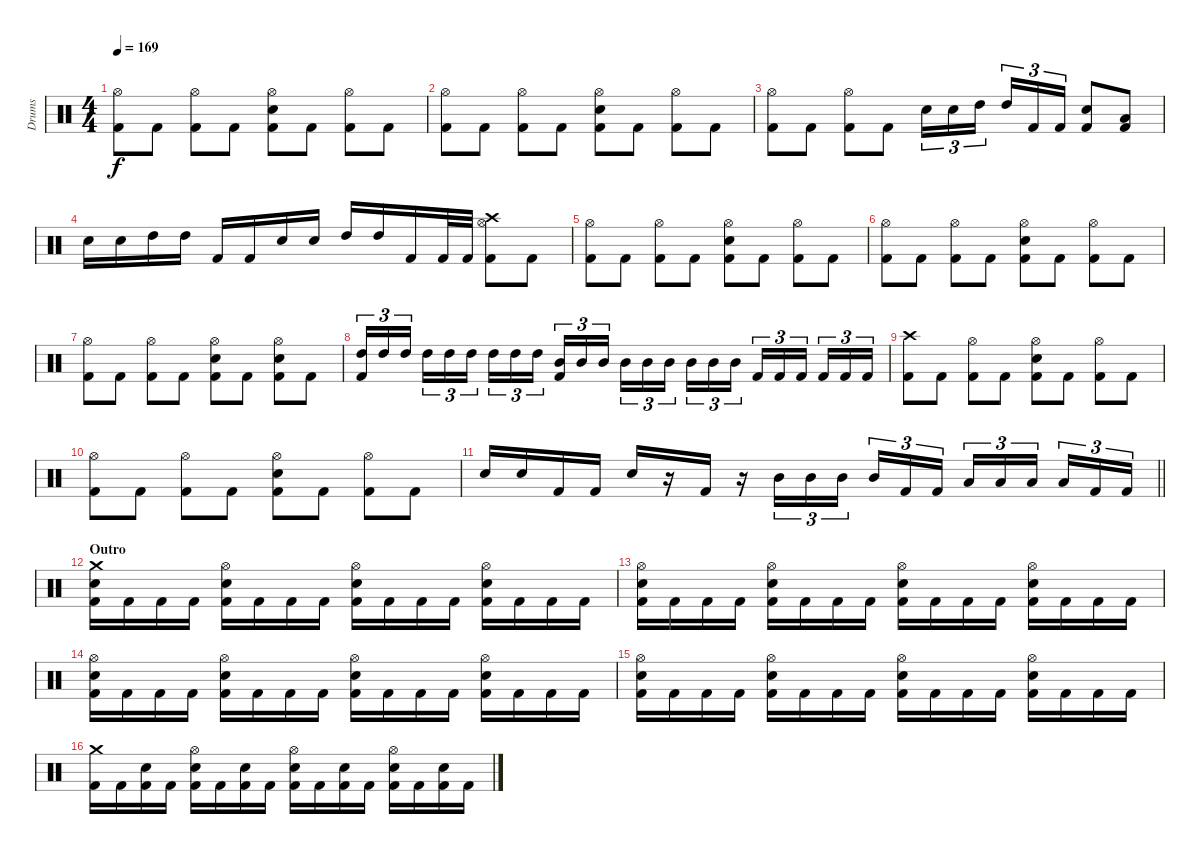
\track ("Drums" "Drums") {instrument percussion}
\staff {score}
\articulation defaults
\ts (4 4)
\tempo 169
\clef neutral
\ks c
("Hi-Hat (open)" "Kick (hit) 2").8{dy f} "Kick (hit) 2".8 ("Hi-Hat (open)" "Kick (hit) 2").8 "Kick (hit) 2".8 ("Hi-Hat (open)" "Snare (hit) 2" "Kick (hit) 2").8 "Kick (hit) 2".8 ("Hi-Hat (open)" "Kick (hit) 2").8 "Kick (hit) 2".8 |
("Hi-Hat (open)" "Kick (hit) 2").8 "Kick (hit) 2".8 ("Hi-Hat (open)" "Kick (hit) 2").8 "Kick (hit) 2".8 ("Hi-Hat (open)" "Snare (hit) 2" "Kick (hit) 2").8 "Kick (hit) 2".8 ("Hi-Hat (open)" "Kick (hit) 2").8 "Kick (hit) 2".8 |
("Hi-Hat (open)" "Kick (hit) 2").8 "Kick (hit) 2".8 ("Hi-Hat (open)" "Kick (hit) 2").8 "Kick (hit) 2".8 "Snare (hit) 2".16{tu (3 2)} "Snare (hit) 2".16{tu (3 2)} "High Tom (hit)".16{tu (3 2) beam splitsecondary} "High Tom (hit)".16{tu (3 2)} "Kick (hit) 2".16{tu (3 2)} "Kick (hit) 2".16{tu (3 2)} ("Snare (hit) 2" "Kick (hit) 2").8 ("Low Tom (hit)" "Kick (hit) 2").8 |
"Snare (hit) 2".16 "Snare (hit) 2".16 "High Tom (hit)".16 "High Tom (hit)".16 "Kick (hit) 2".16 "Kick (hit) 2".16 "Snare (hit) 2".16 "Snare (hit) 2".16 "High Tom (hit)".16 "High Tom (hit)".16 "Kick (hit) 2".16 "Kick (hit) 2".32 "Kick (hit) 2".32 ("Crash high (hit)" "Hi-Hat (open)" "Kick (hit) 2").8 "Kick (hit) 2".8 |
("Hi-Hat (open)" "Kick (hit) 2").8 "Kick (hit) 2".8 ("Hi-Hat (open)" "Kick (hit) 2").8 "Kick (hit) 2".8 ("Hi-Hat (open)" "Snare (hit) 2" "Kick (hit) 2").8 "Kick (hit) 2".8 ("Hi-Hat (open)" "Kick (hit) 2").8 "Kick (hit) 2".8 |
("Hi-Hat (open)" "Kick (hit) 2").8 "Kick (hit) 2".8 ("Hi-Hat (open)" "Kick (hit) 2").8 "Kick (hit) 2".8 ("Hi-Hat (open)" "Snare (hit) 2" "Kick (hit) 2").8 "Kick (hit) 2".8 ("Hi-Hat (open)" "Kick (hit) 2").8 "Kick (hit) 2".8 |
("Hi-Hat (open)" "Kick (hit) 2").8 "Kick (hit) 2".8 ("Hi-Hat (open)" "Kick (hit) 2").8 "Kick (hit) 2".8 ("Hi-Hat (open)" "Snare (hit) 2" "Kick (hit) 2").8 "Kick (hit) 2".8 ("Hi-Hat (open)" "Snare (hit) 2" "Kick (hit) 2").8 "Kick (hit) 2".8 |
("High Tom (hit)" "Kick (hit) 2").16{tu (3 2)} "High Tom (hit)".16{tu (3 2)} "High Tom (hit)".16{tu (3 2) beam splitsecondary} "High Tom (hit)".16{tu (3 2)} "High Tom (hit)".16{tu (3 2)} "High Tom (hit)".16{tu (3 2)} "High Tom (hit)".16{tu (3 2)} "High Tom (hit)".16{tu (3 2)} "High Tom (hit)".16{tu (3 2) beam splitsecondary} ("Mid Tom (hit)" "Kick (hit) 2").16{tu (3 2)} "Mid Tom (hit)".16{tu (3 2)} "Mid Tom (hit)".16{tu (3 2)} "Mid Tom (hit)".16{tu (3 2)} "Mid Tom (hit)".16{tu (3 2)} "Mid Tom (hit)".16{tu (3 2) beam splitsecondary} "Mid Tom (hit)".16{tu (3 2)} "Mid Tom (hit)".16{tu (3 2)} "Mid Tom (hit)".16{tu (3 2)} "Kick (hit) 2".16{tu (3 2)} "Kick (hit) 2".16{tu (3 2)} "Kick (hit) 2".16{tu (3 2) beam splitsecondary} "Kick (hit) 2".16{tu (3 2)} "Kick (hit) 2".16{tu (3 2)} "Kick (hit) 2".16{tu (3 2)} |
("Crash high (hit)" "Kick (hit) 2").8 "Kick (hit) 2".8 ("Hi-Hat (open)" "Kick (hit) 2").8 "Kick (hit) 2".8 ("Hi-Hat (open)" "Snare (hit) 2" "Kick (hit) 2").8 "Kick (hit) 2".8 ("Hi-Hat (open)" "Kick (hit) 2").8 "Kick (hit) 2".8 |
("Hi-Hat (open)" "Kick (hit) 2").8 "Kick (hit) 2".8 ("Hi-Hat (open)" "Kick (hit) 2").8 "Kick (hit) 2".8 ("Hi-Hat (open)" "Snare (hit) 2" "Kick (hit) 2").8 "Kick (hit) 2".8 ("Hi-Hat (open)" "Kick (hit) 2").8 "Kick (hit) 2".8 |
\barLineRight lightlight "Snare (hit) 2".16 "Snare (hit) 2".16 "Kick (hit) 2".16 "Kick (hit) 2".16 "Snare (hit) 2".16
r.16 "Kick (hit) 2".16 r.16 "Mid Tom (hit)".16{tu (3 2)} "Mid Tom (hit)".16{tu (3 2)} "Mid Tom (hit)".16{tu (3 2) beam splitsecondary} "Mid Tom (hit)".16{tu (3 2)} "Kick (hit) 2".16{tu (3 2)} "Kick (hit) 2".16{tu (3 2)} "Low Tom (hit)".16{tu (3 2)} "Low Tom (hit)".16{tu (3 2)} "Low Tom (hit)".16{tu (3 2) beam splitsecondary} "Low Tom (hit)".16{tu (3 2)} "Kick (hit) 2".16{tu (3 2)} "Kick (hit) 2".16{tu (3 2)} |
\section ("" "Outro")
("Crash medium (hit)" "Snare (hit) 2" "Kick (hit) 2").16 "Kick (hit) 2".16 "Kick (hit) 2".16 "Kick (hit) 2".16 ("Hi-Hat (open)" "Snare (hit) 2" "Kick (hit) 2").16 "Kick (hit) 2".16 "Kick (hit) 2".16 "Kick (hit) 2".16 ("Hi-Hat (open)" "Snare (hit) 2" "Kick (hit) 2").16 "Kick (hit) 2".16 "Kick (hit) 2".16 "Kick (hit) 2".16 ("Hi-Hat (open)" "Snare (hit) 2" "Kick (hit) 2").16 "Kick (hit) 2".16 "Kick (hit) 2".16 "Kick (hit) 2".16 |
("Hi-Hat (open)" "Snare (hit) 2" "Kick (hit) 2").16 "Kick (hit) 2".16 "Kick (hit) 2".16 "Kick (hit) 2".16 ("Hi-Hat (open)" "Snare (hit) 2" "Kick (hit) 2").16 "Kick (hit) 2".16 "Kick (hit) 2".16 "Kick (hit) 2".16 ("Hi-Hat (open)" "Snare (hit) 2" "Kick (hit) 2").16 "Kick (hit) 2".16 "Kick (hit) 2".16 "Kick (hit) 2".16 ("Hi-Hat (open)" "Snare (hit) 2" "Kick (hit) 2").16 "Kick (hit) 2".16 "Kick (hit) 2".16 "Kick (hit) 2".16 |
("Hi-Hat (open)" "Snare (hit) 2" "Kick (hit) 2").16 "Kick (hit) 2".16 "Kick (hit) 2".16 "Kick (hit) 2".16 ("Hi-Hat (open)" "Snare (hit) 2" "Kick (hit) 2").16 "Kick (hit) 2".16 "Kick (hit) 2".16 "Kick (hit) 2".16 ("Hi-Hat (open)" "Snare (hit) 2" "Kick (hit) 2").16 "Kick (hit) 2".16 "Kick (hit) 2".16 "Kick (hit) 2".16 ("Hi-Hat (open)" "Snare (hit) 2" "Kick (hit) 2").16 "Kick (hit) 2".16 "Kick (hit) 2".16 "Kick (hit) 2".16 |
("Hi-Hat (open)" "Snare (hit) 2" "Kick (hit) 2").16 "Kick (hit) 2".16 "Kick (hit) 2".16 "Kick (hit) 2".16 ("Hi-Hat (open)" "Snare (hit) 2" "Kick (hit) 2").16 "Kick (hit) 2".16 "Kick (hit) 2".16 "Kick (hit) 2".16 ("Hi-Hat (open)" "Snare (hit) 2" "Kick (hit) 2").16 "Kick (hit) 2".16 "Kick (hit) 2".16 "Kick (hit) 2".16 ("Hi-Hat (open)" "Snare (hit) 2" "Kick (hit) 2").16 "Kick (hit) 2".16 "Kick (hit) 2".16 "Kick (hit) 2".16 |
("Crash medium (hit)" "Kick (hit) 2").16 "Kick (hit) 2".16 ("Snare (hit) 2" "Kick (hit) 2").16 "Kick (hit) 2".16 ("Hi-Hat (open)" "Snare (hit) 2" "Kick (hit) 2").16 "Kick (hit) 2".16 ("Snare (hit) 2" "Kick (hit) 2").16 "Kick (hit) 2".16 ("Hi-Hat (open)" "Snare (hit) 2" "Kick (hit) 2").16 "Kick (hit) 2".16 ("Snare (hit) 2" "Kick (hit) 2").16 "Kick (hit) 2".16 ("Hi-Hat (open)" "Snare (hit) 2" "Kick (hit) 2").16 "Kick (hit) 2".16 ("Snare (hit) 2" "Kick (hit) 2").16 "Kick (hit) 2".16
